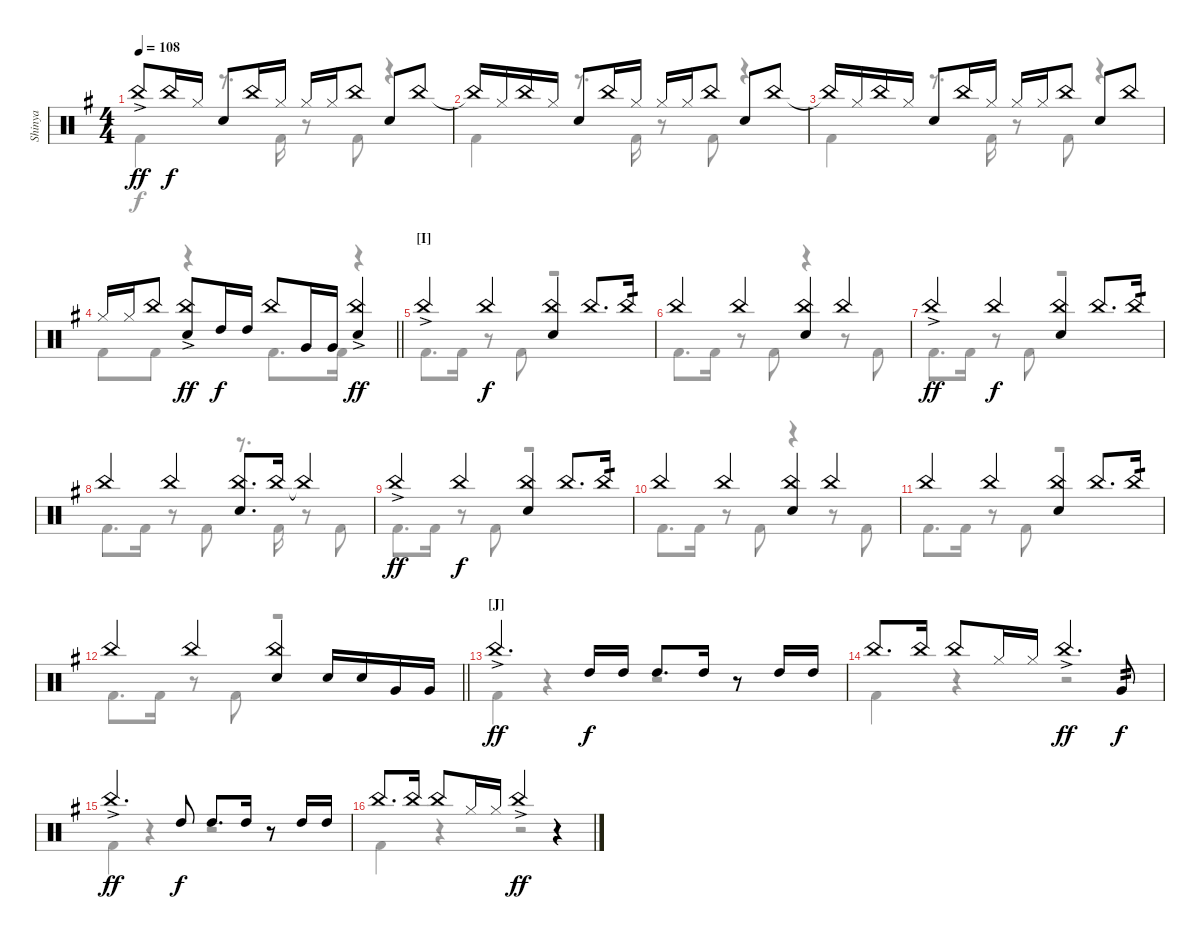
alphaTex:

\track ("Shinya" "Shinya") {instrument percussion}
\staff {score}
\articulation defaults
\voice
\ts (4 4)
\tempo 108
\clef neutral
\ks g "China (hit)"{ac}.8{dy ff} "China (hit)".16{dy f} "Hi-Hat (closed)".16 "Snare (hit) 2".8 "China (hit)".16 "Hi-Hat (closed)".16 "Hi-Hat (closed)".16 "Hi-Hat (closed)".16 "China (hit)".8 "Snare (hit) 2".8 "China (hit)".8
|
"China (hit)"{t}.16 "Hi-Hat (closed)".16 "China (hit)".16 "Hi-Hat (closed)".16 "Snare (hit) 2".8 "China (hit)".16 "Hi-Hat (closed)".16 "Hi-Hat (closed)".16 "Hi-Hat (closed)".16 "China (hit)".8 "Snare (hit) 2".8 "China (hit)".8 |
"China (hit)"{t}.16 "Hi-Hat (closed)".16 "China (hit)".16 "Hi-Hat (closed)".16 "Snare (hit) 2".8 "China (hit)".16 "Hi-Hat (closed)".16 "Hi-Hat (closed)".16 "Hi-Hat (closed)".16 "China (hit)".8 "Snare (hit) 2".8 "China (hit)".8 |
\barLineRight lightlight "Hi-Hat (closed)".16 "Hi-Hat (closed)".16 "China (hit)".8
("China (hit)"{ac} "Snare (hit) 2").8{dy ff} "High Tom (hit)".16{dy f} "High Tom (hit)".16 "China (hit)".8 "Very Low Tom (hit)".16 "Very Low Tom (hit)".16 ("China (hit)"{ac} "Snare (hit) 2").4{dy ff} |
\section ("" "[I]")
"China (hit)"{ac}.4 "China (hit)".4{dy f} ("China (hit)" "Snare (hit) 2").4 "China (hit)".8{d} "China (hit)".16{tp 1} |
"China (hit)".4 "China (hit)".4 ("China (hit)" "Snare (hit) 2").4 "China (hit)".4 |
"China (hit)"{ac}.4{dy ff} "China (hit)".4{dy f} ("China (hit)" "Snare (hit) 2").4 "China (hit)".8{d} "China (hit)".16{tp 1} |
"China (hit)".4 "China (hit)".4 ("China (hit)" "Snare (hit) 2").8{d} "China (hit)".16 "China (hit)"{t}.4 |
"China (hit)"{ac}.4{dy ff} "China (hit)".4{dy f} ("China (hit)" "Snare (hit) 2").4 "China (hit)".8{d} "China (hit)".16{tp 1} |
"China (hit)".4 "China (hit)".4 ("China (hit)" "Snare (hit) 2").4 "China (hit)".4 |
"China (hit)".4 "China (hit)".4 ("China (hit)" "Snare (hit) 2").4 "China (hit)".8{d} "China (hit)".16{tp 1} |
\barLineRight lightlight "China (hit)".4 "China (hit)".4
("China (hit)" "Snare (hit) 2").4 "Snare (hit) 2".16 "Snare (hit) 2".16 "Very Low Tom (hit)".16 "Very Low Tom (hit)".16 |
\section ("" "[J]")
"China (hit)"{ac}.4{d dy ff} "High Tom (hit)".16{dy f} "High Tom (hit)".16 "High Tom (hit)".8{d} "High Tom (hit)".16 r.8 "High Tom (hit)".16 "High Tom (hit)".16 |
"China (hit)".8{d} "China (hit)".16 "China (hit)".8 "Hi-Hat (closed)".16 "Hi-Hat (closed)".16 "China (hit)"{ac}.4{d dy ff} "Very Low Tom (hit)".8{tp 2 dy f} |
"China (hit)"{ac}.4{d dy ff} "High Tom (hit)".8{dy f} "High Tom (hit)".8{d} "High Tom (hit)".16 r.8 "High Tom (hit)".16 "High Tom (hit)".16 |
"China (hit)".8{d} "China (hit)".16 "China (hit)".8 "Hi-Hat (closed)".16 "Hi-Hat (closed)".16 "China (hit)"{ac}.4{dy ff} r.4
\voice
\clef neutral
\ottava regular
\simile none
\ks g "Kick (hit) 2".4{dy f}
r.8{d} "Kick (hit) 2".16 r.8 "Kick (hit) 2".8 r.4 |
"Kick (hit) 2".4 r.8{d} "Kick (hit) 2".16 r.8 "Kick (hit) 2".8 r.4 |
"Kick (hit) 2".4 r.8{d} "Kick (hit) 2".16 r.8 "Kick (hit) 2".8 r.4 |
\barLineRight lightlight "Kick (hit) 2".8 "Kick (hit) 2".8
r.4 "Kick (hit) 2".8{d} "Kick (hit) 2".16 r.4 |
"Kick (hit) 2".8{d} "Kick (hit) 2".16 r.8 "Kick (hit) 2".8 r.2 |
"Kick (hit) 2".8{d} "Kick (hit) 2".16 r.8 "Kick (hit) 2".8 r.4 r.8 "Kick (hit) 2".8 |
"Kick (hit) 2".8{d} "Kick (hit) 2".16 r.8 "Kick (hit) 2".8 r.2 |
"Kick (hit) 2".8{d} "Kick (hit) 2".16 r.8 "Kick (hit) 2".8 r.8{d} "Kick (hit) 2".16 r.8 "Kick (hit) 2".8 |
"Kick (hit) 2".8{d} "Kick (hit) 2".16 r.8 "Kick (hit) 2".8 r.2 |
"Kick (hit) 2".8{d} "Kick (hit) 2".16 r.8 "Kick (hit) 2".8 r.4 r.8 "Kick (hit) 2".8 |
"Kick (hit) 2".8{d} "Kick (hit) 2".16 r.8 "Kick (hit) 2".8 r.2 |
\barLineRight lightlight "Kick (hit) 2".8{d} "Kick (hit) 2".16
r.8 "Kick (hit) 2".8 r.2 |
"Kick (hit) 2".4 r.4 r.2 |
"Kick (hit) 2".4 r.4 r.2 |
"Kick (hit) 2".4 r.4 r.2 |
"Kick (hit) 2".4 r.4 r.2
